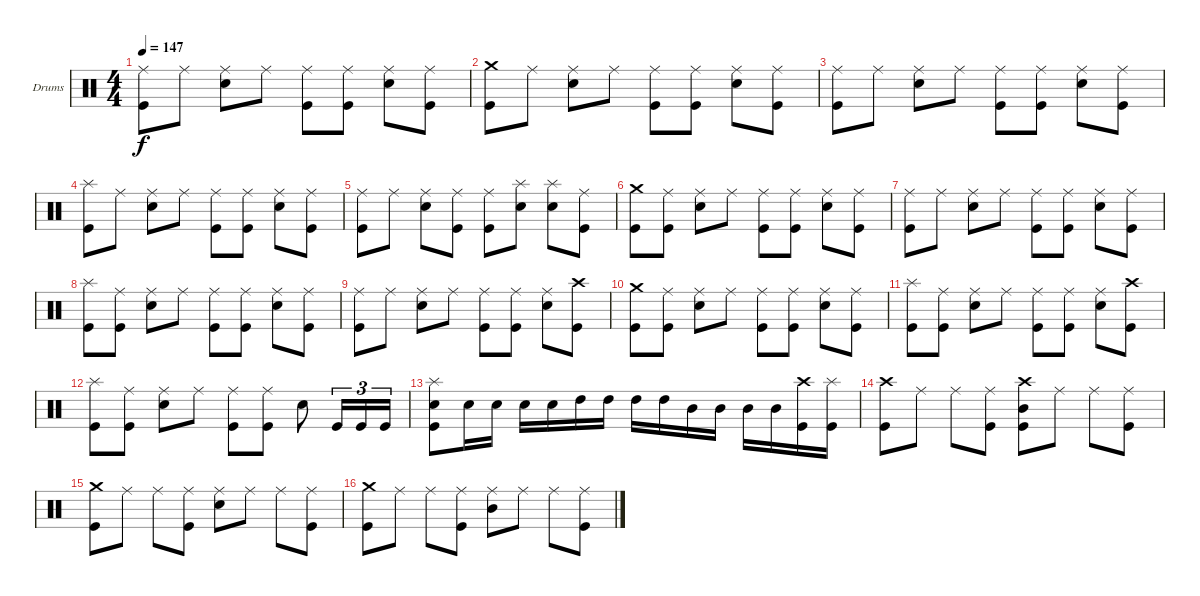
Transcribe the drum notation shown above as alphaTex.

\bracketExtendMode groupsimilarinstruments
\firstSystemTrackNameOrientation horizontal
\otherSystemsTrackNameOrientation horizontal
\track ("Ударные" "Drums") {instrument percussion}
\staff {score}
\articulation defaults
\ts (4 4)
\tempo 147
\clef neutral
\ks c
("Ride (middle)" "Kick (hit)").8{dy f} "Ride (middle)".8 ("Ride (middle)" "Snare (hit) 2").8 "Ride (middle)".8 ("Ride (middle)" "Kick (hit)").8 ("Ride (middle)" "Kick (hit)").8 ("Ride (middle)" "Snare (hit) 2").8 ("Ride (middle)" "Kick (hit)").8 |
("Crash medium (hit)" "Kick (hit)").8 "Ride (middle)".8 ("Ride (middle)" "Snare (hit) 2").8 "Ride (middle)".8 ("Ride (middle)" "Kick (hit)").8 ("Ride (middle)" "Kick (hit)").8 ("Ride (middle)" "Snare (hit) 2").8 ("Ride (middle)" "Kick (hit)").8 |
("Ride (middle)" "Kick (hit)").8 "Ride (middle)".8 ("Ride (middle)" "Snare (hit) 2").8 "Ride (middle)".8 ("Ride (middle)" "Kick (hit)").8 ("Ride (middle)" "Kick (hit)").8 ("Ride (middle)" "Snare (hit) 2").8 ("Ride (middle)" "Kick (hit)").8 |
("Splash (hit)" "Kick (hit)").8 "Ride (middle)".8 ("Ride (middle)" "Snare (hit) 2").8 "Ride (middle)".8 ("Ride (middle)" "Kick (hit)").8 ("Ride (middle)" "Kick (hit)").8 ("Ride (middle)" "Snare (hit) 2").8 ("Ride (middle)" "Kick (hit)").8 |
("Ride (middle)" "Kick (hit)").8 "Ride (middle)".8 ("Ride (middle)" "Snare (hit) 2").8 ("Ride (middle)" "Kick (hit)").8 ("Ride (middle)" "Kick (hit)").8 ("Splash (hit)" "Snare (hit) 2").8 ("Splash (hit)" "Snare (hit) 2").8 ("Ride (middle)" "Kick (hit)").8 |
("Crash medium (hit)" "Kick (hit)").8 ("Ride (middle)" "Kick (hit)").8 ("Ride (middle)" "Snare (hit) 2").8 "Ride (middle)".8 ("Ride (middle)" "Kick (hit)").8 ("Ride (middle)" "Kick (hit)").8 ("Ride (middle)" "Snare (hit) 2").8 ("Ride (middle)" "Kick (hit)").8 |
("Ride (middle)" "Kick (hit)").8 "Ride (middle)".8 ("Ride (middle)" "Snare (hit) 2").8 "Ride (middle)".8 ("Ride (middle)" "Kick (hit)").8 ("Ride (middle)" "Kick (hit)").8 ("Ride (middle)" "Snare (hit) 2").8 ("Ride (middle)" "Kick (hit)").8 |
("Splash (hit)" "Kick (hit)").8 ("Ride (middle)" "Kick (hit)").8 ("Ride (middle)" "Snare (hit) 2").8 "Ride (middle)".8 ("Ride (middle)" "Kick (hit)").8 ("Ride (middle)" "Kick (hit)").8 ("Ride (middle)" "Snare (hit) 2").8 ("Ride (middle)" "Kick (hit)").8 |
("Ride (middle)" "Kick (hit)").8 "Ride (middle)".8 ("Ride (middle)" "Snare (hit) 2").8 "Ride (middle)".8 ("Ride (middle)" "Kick (hit)").8 ("Ride (middle)" "Kick (hit)").8 ("Ride (middle)" "Snare (hit) 2").8 ("Crash high (hit)" "Kick (hit)").8 |
("Crash medium (hit)" "Kick (hit)").8 ("Ride (middle)" "Kick (hit)").8 ("Ride (middle)" "Snare (hit) 2").8 "Ride (middle)".8 ("Ride (middle)" "Kick (hit)").8 ("Ride (middle)" "Kick (hit)").8 ("Ride (middle)" "Snare (hit) 2").8 ("Ride (middle)" "Kick (hit)").8 |
("Splash (hit)" "Kick (hit)").8 ("Ride (middle)" "Kick (hit)").8 ("Ride (middle)" "Snare (hit) 2").8 "Ride (middle)".8 ("Ride (middle)" "Kick (hit)").8 ("Ride (middle)" "Kick (hit)").8 ("Ride (middle)" "Snare (hit) 2").8 ("Crash high (hit)" "Kick (hit)").8 |
("Splash (hit)" "Kick (hit)").8 ("Ride (middle)" "Kick (hit)").8 ("Ride (middle)" "Snare (hit) 2").8 "Ride (middle)".8 ("Ride (middle)" "Kick (hit)").8 ("Ride (middle)" "Kick (hit)").8 "Snare (hit) 2".8 "Kick (hit)".16{tu (3 2)} "Kick (hit)".16{tu (3 2)} "Kick (hit)".16{tu (3 2)} |
("Splash (hit)" "Snare (hit) 2" "Kick (hit)").8 "Snare (hit) 2".16 "Snare (hit) 2".16 "Snare (hit) 2".16 "Snare (hit) 2".16 "High Tom (hit)".16 "High Tom (hit)".16 "High Tom (hit)".16 "High Tom (hit)".16 "Mid Tom (hit)".16 "Mid Tom (hit)".16 "Mid Tom (hit)".16 "Mid Tom (hit)".16 ("Crash high (hit)" "Kick (hit)").16 ("Splash (hit)" "Kick (hit)").16 |
("Crash high (hit)" "Kick (hit)").8 "Ride (middle)".8 "Ride (middle)".8 ("Ride (middle)" "Kick (hit)").8 ("Crash high (hit)" "Mid Tom (hit)" "Kick (hit)").8 "Ride (middle)".8 "Ride (middle)".8 ("Ride (middle)" "Kick (hit)").8 |
("Crash medium (hit)" "Kick (hit)").8 "Ride (middle)".8 "Ride (middle)".8 ("Ride (middle)" "Kick (hit)").8 ("Ride (middle)" "Snare (hit) 2").8 "Ride (middle)".8 "Ride (middle)".8 ("Ride (middle)" "Kick (hit)").8 |
("Crash medium (hit)" "Kick (hit)").8 "Ride (middle)".8 "Ride (middle)".8 ("Ride (middle)" "Kick (hit)").8 ("Ride (middle)" "Mid Tom (hit)").8 "Ride (middle)".8 "Ride (middle)".8 ("Ride (middle)" "Kick (hit)").8
